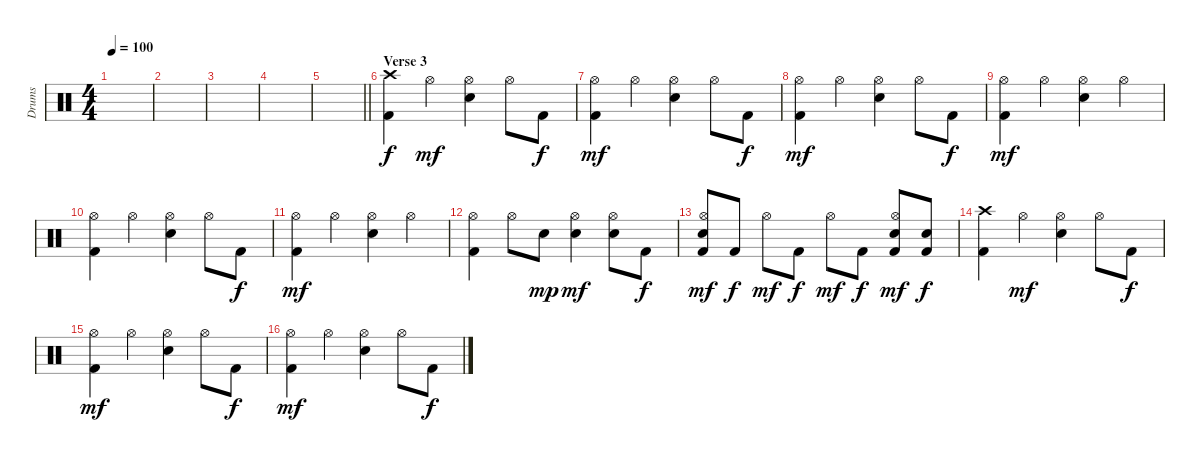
\track ("Drums" "Drums") {instrument percussion}
\staff {score}
\articulation defaults
\ts (4 4)
\tempo 100
\clef neutral
\ks c
|
|
|
|
\barLineRight lightlight
|
\section ("" "Verse 3")
("Crash high (hit)" "Kick (hit) 2").4 "Hi-Hat (open)".4{dy mf} ("Hi-Hat (open)" "Electric Snare (hit)").4 "Hi-Hat (open)".8 "Kick (hit) 2".8{dy f} |
("Hi-Hat (open)" "Kick (hit) 2").4{dy mf} "Hi-Hat (open)".4 ("Hi-Hat (open)" "Electric Snare (hit)").4 "Hi-Hat (open)".8 "Kick (hit) 2".8{dy f} |
("Hi-Hat (open)" "Kick (hit) 2").4{dy mf} "Hi-Hat (open)".4 ("Hi-Hat (open)" "Electric Snare (hit)").4 "Hi-Hat (open)".8 "Kick (hit) 2".8{dy f} |
("Hi-Hat (open)" "Kick (hit) 2").4{dy mf} "Hi-Hat (open)".4 ("Hi-Hat (open)" "Electric Snare (hit)").4 "Hi-Hat (open)".4 |
("Hi-Hat (open)" "Kick (hit) 2").4 "Hi-Hat (open)".4 ("Hi-Hat (open)" "Electric Snare (hit)").4 "Hi-Hat (open)".8 "Kick (hit) 2".8{dy f} |
("Hi-Hat (open)" "Kick (hit) 2").4{dy mf} "Hi-Hat (open)".4 ("Hi-Hat (open)" "Electric Snare (hit)").4 "Hi-Hat (open)".4 |
("Hi-Hat (open)" "Kick (hit) 2").4 "Hi-Hat (open)".8 "Electric Snare (hit)".8{dy mp} ("Hi-Hat (open)" "Electric Snare (hit)").4{dy mf} ("Hi-Hat (open)" "Electric Snare (hit)").8 "Kick (hit) 2".8{dy f} |
("Hi-Hat (open)" "Electric Snare (hit)" "Kick (hit) 2").8{dy mf} "Kick (hit) 2".8{dy f} "Hi-Hat (open)".8{dy mf} "Kick (hit) 2".8{dy f} "Hi-Hat (open)".8{dy mf} "Kick (hit) 2".8{dy f} ("Hi-Hat (open)" "Electric Snare (hit)" "Kick (hit) 2").8{dy mf} ("Electric Snare (hit)" "Kick (hit) 2").8{dy f} |
("Crash high (hit)" "Kick (hit) 2").4 "Hi-Hat (open)".4{dy mf} ("Hi-Hat (open)" "Electric Snare (hit)").4 "Hi-Hat (open)".8 "Kick (hit) 2".8{dy f} |
("Hi-Hat (open)" "Kick (hit) 2").4{dy mf} "Hi-Hat (open)".4 ("Hi-Hat (open)" "Electric Snare (hit)").4 "Hi-Hat (open)".8 "Kick (hit) 2".8{dy f} |
("Hi-Hat (open)" "Kick (hit) 2").4{dy mf} "Hi-Hat (open)".4 ("Hi-Hat (open)" "Electric Snare (hit)").4 "Hi-Hat (open)".8 "Kick (hit) 2".8{dy f}
